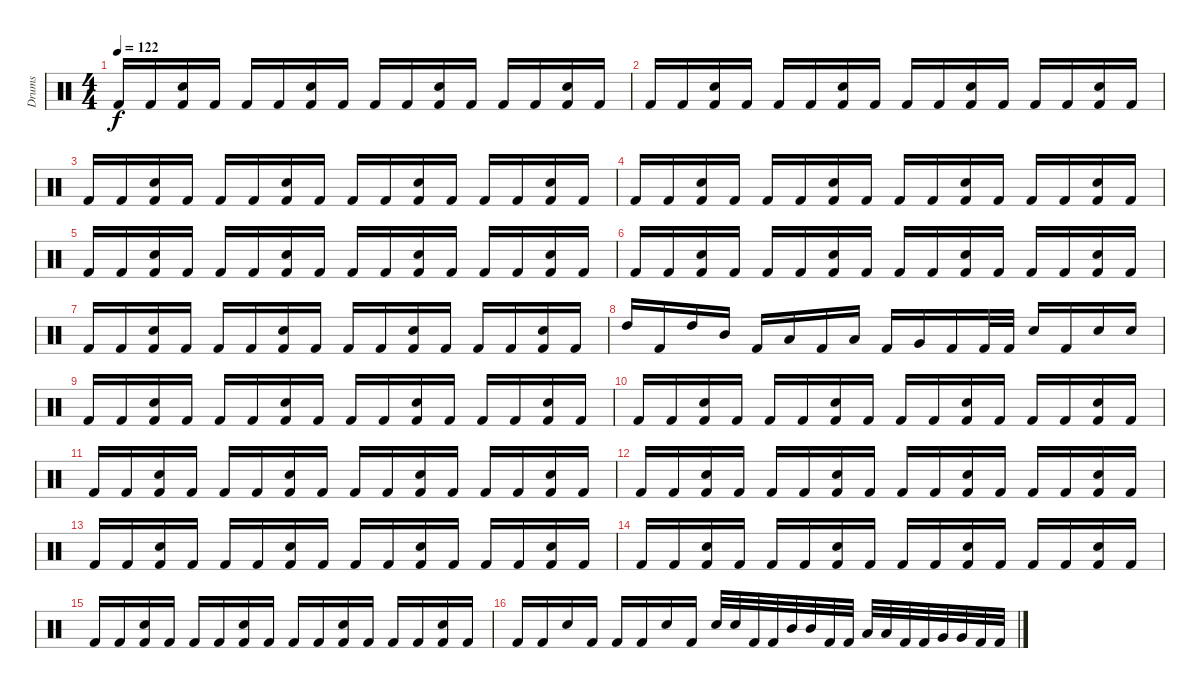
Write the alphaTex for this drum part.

\track ("Drums" "Drums") {instrument percussion}
\staff {score}
\articulation defaults
\ts (4 4)
\tempo 122
\clef neutral
\ks c "Kick (hit) 2".16{dy f} "Kick (hit) 2".16
("Snare (hit) 2" "Kick (hit) 2").16 "Kick (hit) 2".16 "Kick (hit) 2".16 "Kick (hit) 2".16 ("Snare (hit) 2" "Kick (hit) 2").16 "Kick (hit) 2".16 "Kick (hit) 2".16 "Kick (hit) 2".16 ("Snare (hit) 2" "Kick (hit) 2").16 "Kick (hit) 2".16 "Kick (hit) 2".16 "Kick (hit) 2".16 ("Snare (hit) 2" "Kick (hit) 2").16 "Kick (hit) 2".16 |
"Kick (hit) 2".16 "Kick (hit) 2".16 ("Snare (hit) 2" "Kick (hit) 2").16 "Kick (hit) 2".16 "Kick (hit) 2".16 "Kick (hit) 2".16 ("Snare (hit) 2" "Kick (hit) 2").16 "Kick (hit) 2".16 "Kick (hit) 2".16 "Kick (hit) 2".16 ("Snare (hit) 2" "Kick (hit) 2").16 "Kick (hit) 2".16 "Kick (hit) 2".16 "Kick (hit) 2".16 ("Snare (hit) 2" "Kick (hit) 2").16 "Kick (hit) 2".16 |
"Kick (hit) 2".16 "Kick (hit) 2".16 ("Snare (hit) 2" "Kick (hit) 2").16 "Kick (hit) 2".16 "Kick (hit) 2".16 "Kick (hit) 2".16 ("Snare (hit) 2" "Kick (hit) 2").16 "Kick (hit) 2".16 "Kick (hit) 2".16 "Kick (hit) 2".16 ("Snare (hit) 2" "Kick (hit) 2").16 "Kick (hit) 2".16 "Kick (hit) 2".16 "Kick (hit) 2".16 ("Snare (hit) 2" "Kick (hit) 2").16 "Kick (hit) 2".16 |
"Kick (hit) 2".16 "Kick (hit) 2".16 ("Snare (hit) 2" "Kick (hit) 2").16 "Kick (hit) 2".16 "Kick (hit) 2".16 "Kick (hit) 2".16 ("Snare (hit) 2" "Kick (hit) 2").16 "Kick (hit) 2".16 "Kick (hit) 2".16 "Kick (hit) 2".16 ("Snare (hit) 2" "Kick (hit) 2").16 "Kick (hit) 2".16 "Kick (hit) 2".16 "Kick (hit) 2".16 ("Snare (hit) 2" "Kick (hit) 2").16 "Kick (hit) 2".16 |
"Kick (hit) 2".16 "Kick (hit) 2".16 ("Snare (hit) 2" "Kick (hit) 2").16 "Kick (hit) 2".16 "Kick (hit) 2".16 "Kick (hit) 2".16 ("Snare (hit) 2" "Kick (hit) 2").16 "Kick (hit) 2".16 "Kick (hit) 2".16 "Kick (hit) 2".16 ("Snare (hit) 2" "Kick (hit) 2").16 "Kick (hit) 2".16 "Kick (hit) 2".16 "Kick (hit) 2".16 ("Snare (hit) 2" "Kick (hit) 2").16 "Kick (hit) 2".16 |
"Kick (hit) 2".16 "Kick (hit) 2".16 ("Snare (hit) 2" "Kick (hit) 2").16 "Kick (hit) 2".16 "Kick (hit) 2".16 "Kick (hit) 2".16 ("Snare (hit) 2" "Kick (hit) 2").16 "Kick (hit) 2".16 "Kick (hit) 2".16 "Kick (hit) 2".16 ("Snare (hit) 2" "Kick (hit) 2").16 "Kick (hit) 2".16 "Kick (hit) 2".16 "Kick (hit) 2".16 ("Snare (hit) 2" "Kick (hit) 2").16 "Kick (hit) 2".16 |
"Kick (hit) 2".16 "Kick (hit) 2".16 ("Snare (hit) 2" "Kick (hit) 2").16 "Kick (hit) 2".16 "Kick (hit) 2".16 "Kick (hit) 2".16 ("Snare (hit) 2" "Kick (hit) 2").16 "Kick (hit) 2".16 "Kick (hit) 2".16 "Kick (hit) 2".16 ("Snare (hit) 2" "Kick (hit) 2").16 "Kick (hit) 2".16 "Kick (hit) 2".16 "Kick (hit) 2".16 ("Snare (hit) 2" "Kick (hit) 2").16 "Kick (hit) 2".16 |
"High Tom (hit)".16 "Kick (hit) 2".16 "High Tom (hit)".16 "Mid Tom (hit)".16 "Kick (hit) 2".16 "Low Tom (hit)".16 "Kick (hit) 2".16 "Low Tom (hit)".16 "Kick (hit) 2".16 "Very Low Tom (hit)".16 "Kick (hit) 2".16 "Kick (hit) 2".32 "Kick (hit) 2".32 "Snare (hit) 2".16 "Kick (hit) 2".16 "Snare (hit) 2".16 "Snare (hit) 2".16 |
"Kick (hit) 2".16 "Kick (hit) 2".16 ("Snare (hit) 2" "Kick (hit) 2").16 "Kick (hit) 2".16 "Kick (hit) 2".16 "Kick (hit) 2".16 ("Snare (hit) 2" "Kick (hit) 2").16 "Kick (hit) 2".16 "Kick (hit) 2".16 "Kick (hit) 2".16 ("Snare (hit) 2" "Kick (hit) 2").16 "Kick (hit) 2".16 "Kick (hit) 2".16 "Kick (hit) 2".16 ("Snare (hit) 2" "Kick (hit) 2").16 "Kick (hit) 2".16 |
"Kick (hit) 2".16 "Kick (hit) 2".16 ("Snare (hit) 2" "Kick (hit) 2").16 "Kick (hit) 2".16 "Kick (hit) 2".16 "Kick (hit) 2".16 ("Snare (hit) 2" "Kick (hit) 2").16 "Kick (hit) 2".16 "Kick (hit) 2".16 "Kick (hit) 2".16 ("Snare (hit) 2" "Kick (hit) 2").16 "Kick (hit) 2".16 "Kick (hit) 2".16 "Kick (hit) 2".16 ("Snare (hit) 2" "Kick (hit) 2").16 "Kick (hit) 2".16 |
"Kick (hit) 2".16 "Kick (hit) 2".16 ("Snare (hit) 2" "Kick (hit) 2").16 "Kick (hit) 2".16 "Kick (hit) 2".16 "Kick (hit) 2".16 ("Snare (hit) 2" "Kick (hit) 2").16 "Kick (hit) 2".16 "Kick (hit) 2".16 "Kick (hit) 2".16 ("Snare (hit) 2" "Kick (hit) 2").16 "Kick (hit) 2".16 "Kick (hit) 2".16 "Kick (hit) 2".16 ("Snare (hit) 2" "Kick (hit) 2").16 "Kick (hit) 2".16 |
"Kick (hit) 2".16 "Kick (hit) 2".16 ("Snare (hit) 2" "Kick (hit) 2").16 "Kick (hit) 2".16 "Kick (hit) 2".16 "Kick (hit) 2".16 ("Snare (hit) 2" "Kick (hit) 2").16 "Kick (hit) 2".16 "Kick (hit) 2".16 "Kick (hit) 2".16 ("Snare (hit) 2" "Kick (hit) 2").16 "Kick (hit) 2".16 "Kick (hit) 2".16 "Kick (hit) 2".16 ("Snare (hit) 2" "Kick (hit) 2").16 "Kick (hit) 2".16 |
"Kick (hit) 2".16 "Kick (hit) 2".16 ("Snare (hit) 2" "Kick (hit) 2").16 "Kick (hit) 2".16 "Kick (hit) 2".16 "Kick (hit) 2".16 ("Snare (hit) 2" "Kick (hit) 2").16 "Kick (hit) 2".16 "Kick (hit) 2".16 "Kick (hit) 2".16 ("Snare (hit) 2" "Kick (hit) 2").16 "Kick (hit) 2".16 "Kick (hit) 2".16 "Kick (hit) 2".16 ("Snare (hit) 2" "Kick (hit) 2").16 "Kick (hit) 2".16 |
"Kick (hit) 2".16 "Kick (hit) 2".16 ("Snare (hit) 2" "Kick (hit) 2").16 "Kick (hit) 2".16 "Kick (hit) 2".16 "Kick (hit) 2".16 ("Snare (hit) 2" "Kick (hit) 2").16 "Kick (hit) 2".16 "Kick (hit) 2".16 "Kick (hit) 2".16 ("Snare (hit) 2" "Kick (hit) 2").16 "Kick (hit) 2".16 "Kick (hit) 2".16 "Kick (hit) 2".16 ("Snare (hit) 2" "Kick (hit) 2").16 "Kick (hit) 2".16 |
"Kick (hit) 2".16 "Kick (hit) 2".16 ("Snare (hit) 2" "Kick (hit) 2").16 "Kick (hit) 2".16 "Kick (hit) 2".16 "Kick (hit) 2".16 ("Snare (hit) 2" "Kick (hit) 2").16 "Kick (hit) 2".16 "Kick (hit) 2".16 "Kick (hit) 2".16 ("Snare (hit) 2" "Kick (hit) 2").16 "Kick (hit) 2".16 "Kick (hit) 2".16 "Kick (hit) 2".16 ("Snare (hit) 2" "Kick (hit) 2").16 "Kick (hit) 2".16 |
"Kick (hit) 2".16 "Kick (hit) 2".16 "Snare (hit) 2".16 "Kick (hit) 2".16 "Kick (hit) 2".16 "Kick (hit) 2".16 "Snare (hit) 2".16 "Kick (hit) 2".16 "Snare (hit) 2".32 "Snare (hit) 2".32 "Kick (hit) 2".32 "Kick (hit) 2".32 "Mid Tom (hit)".32 "Mid Tom (hit)".32 "Kick (hit) 2".32 "Kick (hit) 2".32 "Low Tom (hit)".32 "Low Tom (hit)".32 "Kick (hit) 2".32 "Kick (hit) 2".32 "Very Low Tom (hit)".32 "Very Low Tom (hit)".32 "Kick (hit) 2".32 "Kick (hit) 2".32
